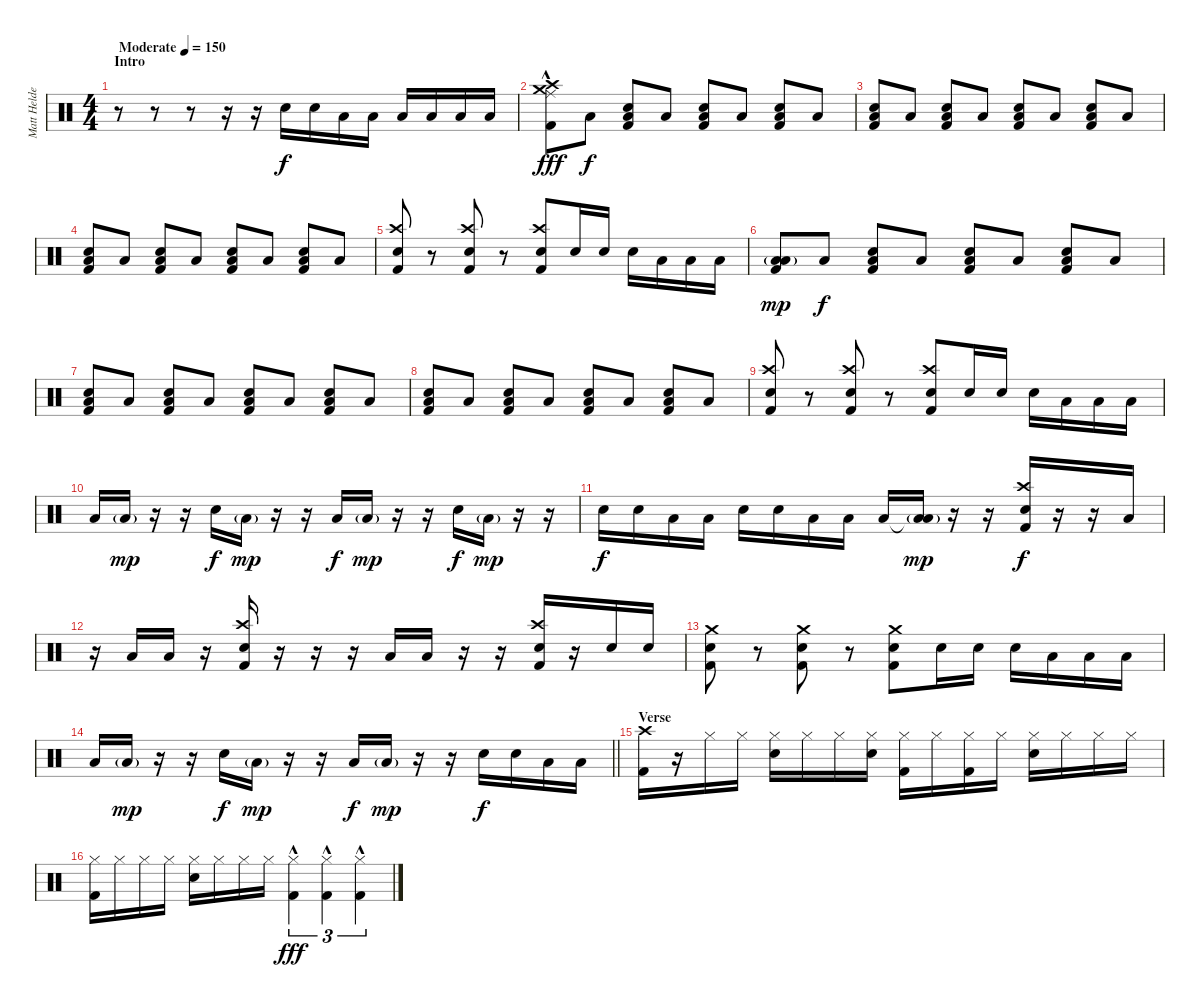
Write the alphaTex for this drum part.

\track ("Matt Helders" "Matt Helde") {instrument percussion}
\staff {score}
\articulation defaults
\ts (4 4)
\section ("" "Intro")
\tempo (150 "Moderate")
\clef neutral
\ks c
r.8{dy f} r.8 r.8 r.16 r.16 "Snare (hit) 2".16 "Snare (hit) 2".16 "Low Tom (hit)".16 "Low Tom (hit)".16 "Low Floor Tom (hit)".16 "Low Floor Tom (hit)".16 "Low Floor Tom (hit)".16 "Low Floor Tom (hit)".16 |
("Crash high (hit)"{hac} "Kick (hit) 2" "Crash medium (hit)" "Ride (middle)").8{dy fff} "Low Tom (hit)".8{dy f} ("Snare (hit) 2" "Low Tom (hit)" "Kick (hit) 2").8 "Low Tom (hit)".8 ("Snare (hit) 2" "Low Tom (hit)" "Kick (hit) 2").8 "Low Tom (hit)".8 ("Snare (hit) 2" "Low Tom (hit)" "Kick (hit) 2").8 "Low Tom (hit)".8 |
("Snare (hit) 2" "Low Tom (hit)" "Kick (hit) 2").8 "Low Tom (hit)".8 ("Snare (hit) 2" "Low Tom (hit)" "Kick (hit) 2").8 "Low Tom (hit)".8 ("Snare (hit) 2" "Low Tom (hit)" "Kick (hit) 2").8 "Low Tom (hit)".8 ("Snare (hit) 2" "Low Tom (hit)" "Kick (hit) 2").8 "Low Tom (hit)".8 |
("Snare (hit) 2" "Low Tom (hit)" "Kick (hit) 2").8 "Low Tom (hit)".8 ("Snare (hit) 2" "Low Tom (hit)" "Kick (hit) 2").8 "Low Tom (hit)".8 ("Snare (hit) 2" "Low Tom (hit)" "Kick (hit) 2").8 "Low Tom (hit)".8 ("Snare (hit) 2" "Low Tom (hit)" "Kick (hit) 2").8 "Low Tom (hit)".8 |
("Kick (hit) 2" "Snare (hit) 2" "Crash high (hit)").8 r.8 ("Kick (hit) 2" "Snare (hit) 2" "Crash high (hit)").8 r.8 ("Kick (hit) 2" "Snare (hit) 2" "Crash high (hit)").8 "Snare (hit) 2".16 "Snare (hit) 2".16 "Snare (hit) 2".16 "Low Tom (hit)".16 "Low Tom (hit)".16 "Low Tom (hit)".16 |
("Low Tom (hit)" "Low Tom (hit)"{g} "Kick (hit) 2").8{dy mp} "Low Tom (hit)".8{dy f} ("Snare (hit) 2" "Low Tom (hit)" "Kick (hit) 2").8 "Low Tom (hit)".8 ("Snare (hit) 2" "Low Tom (hit)" "Kick (hit) 2").8 "Low Tom (hit)".8 ("Snare (hit) 2" "Low Tom (hit)" "Kick (hit) 2").8 "Low Tom (hit)".8 |
("Snare (hit) 2" "Low Tom (hit)" "Kick (hit) 2").8 "Low Tom (hit)".8 ("Snare (hit) 2" "Low Tom (hit)" "Kick (hit) 2").8 "Low Tom (hit)".8 ("Snare (hit) 2" "Low Tom (hit)" "Kick (hit) 2").8 "Low Tom (hit)".8 ("Snare (hit) 2" "Low Tom (hit)" "Kick (hit) 2").8 "Low Tom (hit)".8 |
("Snare (hit) 2" "Low Tom (hit)" "Kick (hit) 2").8 "Low Tom (hit)".8 ("Snare (hit) 2" "Low Tom (hit)" "Kick (hit) 2").8 "Low Tom (hit)".8 ("Snare (hit) 2" "Low Tom (hit)" "Kick (hit) 2").8 "Low Tom (hit)".8 ("Snare (hit) 2" "Low Tom (hit)" "Kick (hit) 2").8 "Low Tom (hit)".8 |
("Kick (hit) 2" "Snare (hit) 2" "Crash high (hit)").8 r.8 ("Kick (hit) 2" "Snare (hit) 2" "Crash high (hit)").8 r.8 ("Kick (hit) 2" "Snare (hit) 2" "Crash high (hit)").8 "Snare (hit) 2".16 "Snare (hit) 2".16 "Snare (hit) 2".16 "Low Tom (hit)".16 "Low Tom (hit)".16 "Low Tom (hit)".16 |
"Low Tom (hit)".16 "Low Tom (hit)"{g}.16{dy mp} r.16 r.16 "Snare (hit) 2".16{dy f} "Low Tom (hit)"{g}.16{dy mp} r.16 r.16 "Low Tom (hit)".16{dy f} "Low Tom (hit)"{g}.16{dy mp} r.16 r.16 "Snare (hit) 2".16{dy f} "Low Tom (hit)"{g}.16{dy mp} r.16 r.16 |
"Snare (hit) 2".16{dy f} "Snare (hit) 2".16 "Low Tom (hit)".16 "Low Tom (hit)".16 "Snare (hit) 2".16 "Snare (hit) 2".16 "Low Tom (hit)".16 "Low Tom (hit)".16 "Low Tom (hit)".16 ("Low Tom (hit)"{t} "Low Tom (hit)"{g}).16{dy mp} r.16 r.16 ("Crash high (hit)" "Snare (hit) 2" "Kick (hit) 2").16{dy f} r.16 r.16 "Low Tom (hit)".16 |
r.16 "Low Tom (hit)".16 "Low Tom (hit)".16 r.16 ("Crash high (hit)" "Kick (hit) 2" "Snare (hit) 2").16 r.16 r.16 r.16 "Low Tom (hit)".16 "Low Tom (hit)".16 r.16 r.16 ("Crash high (hit)" "Kick (hit) 2" "Snare (hit) 2").16 r.16 "Snare (hit) 2".16 "Snare (hit) 2".16 |
("Kick (hit) 2" "Snare (hit) 2" "Crash medium (hit)").8 r.8 ("Kick (hit) 2" "Snare (hit) 2" "Crash medium (hit)").8 r.8 ("Kick (hit) 2" "Snare (hit) 2" "Crash medium (hit)").8 "Snare (hit) 2".16 "Snare (hit) 2".16 "Snare (hit) 2".16 "Low Tom (hit)".16 "Low Tom (hit)".16 "Low Tom (hit)".16 |
\barLineRight lightlight "Low Tom (hit)".16 "Low Tom (hit)"{g}.16{dy mp}
r.16 r.16 "Snare (hit) 2".16{dy f} "Low Tom (hit)"{g}.16{dy mp} r.16 r.16 "Low Tom (hit)".16{dy f} "Low Tom (hit)"{g}.16{dy mp} r.16 r.16 "Snare (hit) 2".16{dy f} "Snare (hit) 2".16 "Low Tom (hit)".16 "Low Tom (hit)".16 |
\section ("" "Verse")
("Crash high (hit)" "Kick (hit) 2").16 r.16 "Hi-Hat (closed)".16 "Hi-Hat (closed)".16 ("Hi-Hat (closed)" "Snare (hit) 2").16 "Hi-Hat (closed)".16 "Hi-Hat (closed)".16 ("Hi-Hat (closed)" "Snare (hit) 2").16 ("Hi-Hat (closed)" "Kick (hit) 2").16 "Hi-Hat (closed)".16 ("Hi-Hat (closed)" "Kick (hit) 2").16 "Hi-Hat (closed)".16 ("Hi-Hat (closed)" "Snare (hit) 2").16 "Hi-Hat (closed)".16 "Hi-Hat (closed)".16 "Hi-Hat (closed)".16 |
("Hi-Hat (closed)" "Kick (hit) 2").16 "Hi-Hat (closed)".16 "Hi-Hat (closed)".16 "Hi-Hat (closed)".16 ("Hi-Hat (closed)" "Snare (hit) 2").16 "Hi-Hat (closed)".16 "Hi-Hat (closed)".16 "Hi-Hat (closed)".16 ("Kick (hit) 2" "Hi-Hat (closed)"{hac}).4{tu (3 2) dy fff} ("Kick (hit) 2" "Hi-Hat (closed)"{hac}).4{tu (3 2)} ("Kick (hit) 2" "Hi-Hat (closed)"{hac}).4{tu (3 2)}
